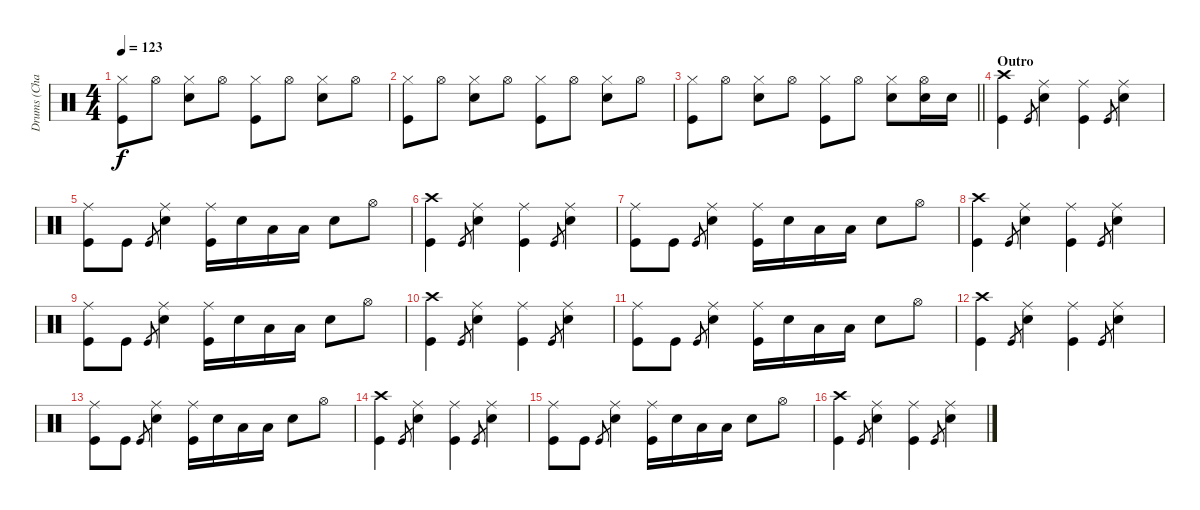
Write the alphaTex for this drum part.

\track ("Drums (Chad Smith)" "Drums (Cha") {instrument percussion}
\staff {score}
\articulation defaults
\ts (4 4)
\tempo 123
\clef neutral
\ks c
("Hi-Hat (closed)" "Kick (hit)").8{dy f} "Hi-Hat (open)".8 ("Hi-Hat (closed)" "Snare (hit) 2").8 "Hi-Hat (open)".8 ("Hi-Hat (closed)" "Kick (hit)").8 "Hi-Hat (open)".8 ("Hi-Hat (closed)" "Snare (hit) 2").8 "Hi-Hat (open)".8 |
("Hi-Hat (closed)" "Kick (hit)").8 "Hi-Hat (open)".8 ("Hi-Hat (closed)" "Snare (hit) 2").8 "Hi-Hat (open)".8 ("Hi-Hat (closed)" "Kick (hit)").8 "Hi-Hat (open)".8 ("Hi-Hat (closed)" "Snare (hit) 2").8 "Hi-Hat (open)".8 |
\barLineRight lightlight
("Hi-Hat (closed)" "Kick (hit)").8 "Hi-Hat (open)".8 ("Hi-Hat (closed)" "Snare (hit) 2").8 "Hi-Hat (open)".8 ("Hi-Hat (closed)" "Kick (hit)").8 "Hi-Hat (open)".8 ("Hi-Hat (closed)" "Snare (hit) 2").8 ("Hi-Hat (open)" "Snare (hit) 2").16 "Snare (hit) 2".16 |
\section ("" "Outro")
("Crash high (hit)" "Kick (hit)").4 "Kick (hit)".8{gr} ("Ride (middle)" "Snare (hit) 2").4 ("Ride (middle)" "Kick (hit)").4 "Kick (hit)".8{gr} ("Ride (middle)" "Snare (hit) 2").4 |
("Ride (middle)" "Kick (hit)").8 "Kick (hit)".8 "Kick (hit)".8{gr} ("Ride (middle)" "Snare (hit) 2").4 ("Ride (middle)" "Kick (hit)").16 "Snare (hit) 2".16 "Low Floor Tom (hit)".16 "Low Floor Tom (hit)".16 "Snare (hit) 2".8 "Hi-Hat (open)".8 |
("Crash high (hit)" "Kick (hit)").4 "Kick (hit)".8{gr} ("Ride (middle)" "Snare (hit) 2").4 ("Ride (middle)" "Kick (hit)").4 "Kick (hit)".8{gr} ("Ride (middle)" "Snare (hit) 2").4 |
("Ride (middle)" "Kick (hit)").8 "Kick (hit)".8 "Kick (hit)".8{gr} ("Ride (middle)" "Snare (hit) 2").4 ("Ride (middle)" "Kick (hit)").16 "Snare (hit) 2".16 "Low Floor Tom (hit)".16 "Low Floor Tom (hit)".16 "Snare (hit) 2".8 "Hi-Hat (open)".8 |
("Crash high (hit)" "Kick (hit)").4 "Kick (hit)".8{gr} ("Ride (middle)" "Snare (hit) 2").4 ("Ride (middle)" "Kick (hit)").4 "Kick (hit)".8{gr} ("Ride (middle)" "Snare (hit) 2").4 |
("Ride (middle)" "Kick (hit)").8 "Kick (hit)".8 "Kick (hit)".8{gr} ("Ride (middle)" "Snare (hit) 2").4 ("Ride (middle)" "Kick (hit)").16 "Snare (hit) 2".16 "Low Floor Tom (hit)".16 "Low Floor Tom (hit)".16 "Snare (hit) 2".8 "Hi-Hat (open)".8 |
("Crash high (hit)" "Kick (hit)").4 "Kick (hit)".8{gr} ("Ride (middle)" "Snare (hit) 2").4 ("Ride (middle)" "Kick (hit)").4 "Kick (hit)".8{gr} ("Ride (middle)" "Snare (hit) 2").4 |
("Ride (middle)" "Kick (hit)").8 "Kick (hit)".8 "Kick (hit)".8{gr} ("Ride (middle)" "Snare (hit) 2").4 ("Ride (middle)" "Kick (hit)").16 "Snare (hit) 2".16 "Low Floor Tom (hit)".16 "Low Floor Tom (hit)".16 "Snare (hit) 2".8 "Hi-Hat (open)".8 |
("Crash high (hit)" "Kick (hit)").4 "Kick (hit)".8{gr} ("Ride (middle)" "Snare (hit) 2").4 ("Ride (middle)" "Kick (hit)").4 "Kick (hit)".8{gr} ("Ride (middle)" "Snare (hit) 2").4 |
("Ride (middle)" "Kick (hit)").8 "Kick (hit)".8 "Kick (hit)".8{gr} ("Ride (middle)" "Snare (hit) 2").4 ("Ride (middle)" "Kick (hit)").16 "Snare (hit) 2".16 "Low Floor Tom (hit)".16 "Low Floor Tom (hit)".16 "Snare (hit) 2".8 "Hi-Hat (open)".8 |
("Crash high (hit)" "Kick (hit)").4 "Kick (hit)".8{gr} ("Ride (middle)" "Snare (hit) 2").4 ("Ride (middle)" "Kick (hit)").4 "Kick (hit)".8{gr} ("Ride (middle)" "Snare (hit) 2").4 |
("Ride (middle)" "Kick (hit)").8 "Kick (hit)".8 "Kick (hit)".8{gr} ("Ride (middle)" "Snare (hit) 2").4 ("Ride (middle)" "Kick (hit)").16 "Snare (hit) 2".16 "Low Floor Tom (hit)".16 "Low Floor Tom (hit)".16 "Snare (hit) 2".8 "Hi-Hat (open)".8 |
("Crash high (hit)" "Kick (hit)").4 "Kick (hit)".8{gr} ("Ride (middle)" "Snare (hit) 2").4 ("Ride (middle)" "Kick (hit)").4 "Kick (hit)".8{gr} ("Ride (middle)" "Snare (hit) 2").4
